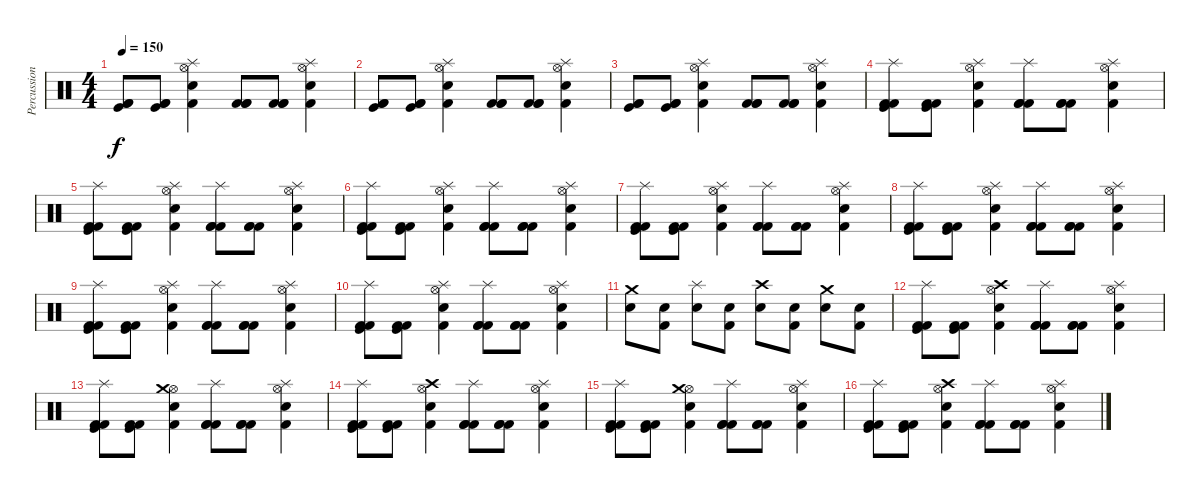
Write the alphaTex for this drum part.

\track ("Percussion" "Percussion") {instrument percussion}
\staff {score}
\articulation defaults
\ts (4 4)
\tempo 150
\clef neutral
\ks c
("Kick (hit) 2" "Kick (hit)" "Kick (hit) 2").8{dy f} ("Kick (hit) 2" "Kick (hit)" "Kick (hit) 2").8 ("Hi-Hat (open)" "Snare (hit) 2" "Kick (hit) 2" "Splash (hit)").4 ("Kick (hit) 2" "Kick (hit) 2" "Kick (hit) 2").8 ("Kick (hit) 2" "Kick (hit) 2" "Kick (hit) 2").8 ("Hi-Hat (open)" "Snare (hit) 2" "Kick (hit) 2" "Splash (hit)").4 |
("Kick (hit) 2" "Kick (hit)" "Kick (hit) 2").8 ("Kick (hit) 2" "Kick (hit)" "Kick (hit) 2").8 ("Hi-Hat (open)" "Snare (hit) 2" "Kick (hit) 2" "Splash (hit)").4 ("Kick (hit) 2" "Kick (hit) 2" "Kick (hit) 2").8 ("Kick (hit) 2" "Kick (hit) 2" "Kick (hit) 2").8 ("Hi-Hat (open)" "Snare (hit) 2" "Kick (hit) 2" "Splash (hit)").4 |
("Kick (hit) 2" "Kick (hit)" "Kick (hit) 2").8 ("Kick (hit) 2" "Kick (hit)" "Kick (hit) 2").8 ("Hi-Hat (open)" "Snare (hit) 2" "Kick (hit) 2" "Splash (hit)").4 ("Kick (hit) 2" "Kick (hit) 2" "Kick (hit) 2").8 ("Kick (hit) 2" "Kick (hit) 2" "Kick (hit) 2").8 ("Hi-Hat (open)" "Snare (hit) 2" "Kick (hit) 2" "Splash (hit)").4 |
("Kick (hit) 2" "Kick (hit)" "Kick (hit) 2" "Splash (hit)").8 ("Kick (hit) 2" "Kick (hit)" "Kick (hit) 2").8 ("Hi-Hat (open)" "Snare (hit) 2" "Kick (hit) 2" "Splash (hit)").4 ("Kick (hit) 2" "Kick (hit) 2" "Kick (hit) 2" "Splash (hit)").8 ("Kick (hit) 2" "Kick (hit) 2" "Kick (hit) 2").8 ("Hi-Hat (open)" "Snare (hit) 2" "Kick (hit) 2" "Splash (hit)").4 |
("Kick (hit) 2" "Kick (hit)" "Kick (hit) 2" "Splash (hit)").8 ("Kick (hit) 2" "Kick (hit)" "Kick (hit) 2").8 ("Hi-Hat (open)" "Snare (hit) 2" "Kick (hit) 2" "Splash (hit)").4 ("Kick (hit) 2" "Kick (hit) 2" "Kick (hit) 2" "Splash (hit)").8 ("Kick (hit) 2" "Kick (hit) 2" "Kick (hit) 2").8 ("Hi-Hat (open)" "Snare (hit) 2" "Kick (hit) 2" "Splash (hit)").4 |
("Kick (hit) 2" "Kick (hit)" "Kick (hit) 2" "Splash (hit)").8 ("Kick (hit) 2" "Kick (hit)" "Kick (hit) 2").8 ("Hi-Hat (open)" "Snare (hit) 2" "Kick (hit) 2" "Splash (hit)").4 ("Kick (hit) 2" "Kick (hit) 2" "Kick (hit) 2" "Splash (hit)").8 ("Kick (hit) 2" "Kick (hit) 2" "Kick (hit) 2").8 ("Hi-Hat (open)" "Snare (hit) 2" "Kick (hit) 2" "Splash (hit)").4 |
("Kick (hit) 2" "Kick (hit)" "Kick (hit) 2" "Splash (hit)").8 ("Kick (hit) 2" "Kick (hit)" "Kick (hit) 2").8 ("Hi-Hat (open)" "Snare (hit) 2" "Kick (hit) 2" "Splash (hit)").4 ("Kick (hit) 2" "Kick (hit) 2" "Kick (hit) 2" "Splash (hit)").8 ("Kick (hit) 2" "Kick (hit) 2" "Kick (hit) 2").8 ("Hi-Hat (open)" "Snare (hit) 2" "Kick (hit) 2" "Splash (hit)").4 |
("Kick (hit) 2" "Kick (hit)" "Kick (hit) 2" "Splash (hit)").8 ("Kick (hit) 2" "Kick (hit)" "Kick (hit) 2").8 ("Hi-Hat (open)" "Snare (hit) 2" "Kick (hit) 2" "Splash (hit)").4 ("Kick (hit) 2" "Kick (hit) 2" "Kick (hit) 2" "Splash (hit)").8 ("Kick (hit) 2" "Kick (hit) 2" "Kick (hit) 2").8 ("Hi-Hat (open)" "Snare (hit) 2" "Kick (hit) 2" "Splash (hit)").4 |
("Kick (hit) 2" "Kick (hit)" "Kick (hit) 2" "Splash (hit)").8 ("Kick (hit) 2" "Kick (hit)" "Kick (hit) 2").8 ("Hi-Hat (open)" "Snare (hit) 2" "Kick (hit) 2" "Splash (hit)").4 ("Kick (hit) 2" "Kick (hit) 2" "Kick (hit) 2" "Splash (hit)").8 ("Kick (hit) 2" "Kick (hit) 2" "Kick (hit) 2").8 ("Hi-Hat (open)" "Snare (hit) 2" "Kick (hit) 2" "Splash (hit)").4 |
("Kick (hit) 2" "Kick (hit)" "Kick (hit) 2" "Splash (hit)").8 ("Kick (hit) 2" "Kick (hit)" "Kick (hit) 2").8 ("Hi-Hat (open)" "Snare (hit) 2" "Kick (hit) 2" "Splash (hit)").4 ("Kick (hit) 2" "Kick (hit) 2" "Kick (hit) 2" "Splash (hit)").8 ("Kick (hit) 2" "Kick (hit) 2" "Kick (hit) 2").8 ("Hi-Hat (open)" "Snare (hit) 2" "Kick (hit) 2" "Splash (hit)").4 |
("Snare (hit) 2" "Crash medium (hit)").8 ("Snare (hit) 2" "Kick (hit) 2").8 ("Snare (hit) 2" "Splash (hit)").8 ("Snare (hit) 2" "Kick (hit) 2").8 ("Snare (hit) 2" "Crash high (hit)").8 ("Snare (hit) 2" "Kick (hit) 2").8 ("Snare (hit) 2" "Crash medium (hit)").8 ("Snare (hit) 2" "Kick (hit) 2").8 |
("Kick (hit) 2" "Kick (hit)" "Kick (hit) 2" "Splash (hit)").8 ("Kick (hit) 2" "Kick (hit)" "Kick (hit) 2").8 ("Hi-Hat (open)" "Snare (hit) 2" "Kick (hit) 2" "Crash high (hit)").4 ("Kick (hit) 2" "Kick (hit) 2" "Kick (hit) 2" "Splash (hit)").8 ("Kick (hit) 2" "Kick (hit) 2" "Kick (hit) 2").8 ("Hi-Hat (open)" "Snare (hit) 2" "Kick (hit) 2" "Splash (hit)").4 |
("Kick (hit) 2" "Kick (hit)" "Kick (hit) 2" "Splash (hit)").8 ("Kick (hit) 2" "Kick (hit)" "Kick (hit) 2").8 ("Hi-Hat (open)" "Snare (hit) 2" "Kick (hit) 2" "Crash medium (hit)").4 ("Kick (hit) 2" "Kick (hit) 2" "Kick (hit) 2" "Splash (hit)").8 ("Kick (hit) 2" "Kick (hit) 2" "Kick (hit) 2").8 ("Hi-Hat (open)" "Snare (hit) 2" "Kick (hit) 2" "Splash (hit)").4 |
("Kick (hit) 2" "Kick (hit)" "Kick (hit) 2" "Splash (hit)").8 ("Kick (hit) 2" "Kick (hit)" "Kick (hit) 2").8 ("Hi-Hat (open)" "Snare (hit) 2" "Kick (hit) 2" "Crash high (hit)").4 ("Kick (hit) 2" "Kick (hit) 2" "Kick (hit) 2" "Splash (hit)").8 ("Kick (hit) 2" "Kick (hit) 2" "Kick (hit) 2").8 ("Hi-Hat (open)" "Snare (hit) 2" "Kick (hit) 2" "Splash (hit)").4 |
("Kick (hit) 2" "Kick (hit)" "Kick (hit) 2" "Splash (hit)").8 ("Kick (hit) 2" "Kick (hit)" "Kick (hit) 2").8 ("Hi-Hat (open)" "Snare (hit) 2" "Kick (hit) 2" "Crash medium (hit)").4 ("Kick (hit) 2" "Kick (hit) 2" "Kick (hit) 2" "Splash (hit)").8 ("Kick (hit) 2" "Kick (hit) 2" "Kick (hit) 2").8 ("Hi-Hat (open)" "Snare (hit) 2" "Kick (hit) 2" "Splash (hit)").4 |
("Kick (hit) 2" "Kick (hit)" "Kick (hit) 2" "Splash (hit)").8 ("Kick (hit) 2" "Kick (hit)" "Kick (hit) 2").8 ("Hi-Hat (open)" "Snare (hit) 2" "Kick (hit) 2" "Crash high (hit)").4 ("Kick (hit) 2" "Kick (hit) 2" "Kick (hit) 2" "Splash (hit)").8 ("Kick (hit) 2" "Kick (hit) 2" "Kick (hit) 2").8 ("Hi-Hat (open)" "Snare (hit) 2" "Kick (hit) 2" "Splash (hit)").4
